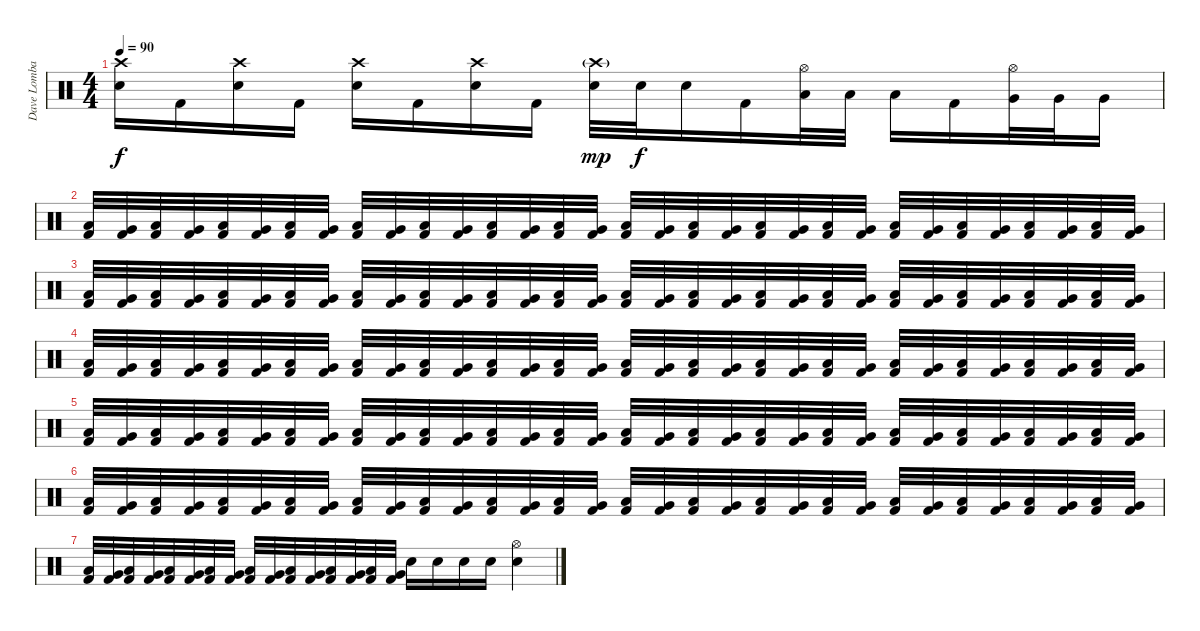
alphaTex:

\track ("Dave Lombardo" "Dave Lomba") {instrument percussion}
\staff {score}
\articulation defaults
\ts (4 4)
\tempo 90
\clef neutral
\ks c
("Crash high (hit)" "Snare (hit) 2").16{dy f} "Kick (hit) 2".16 ("Crash high (hit)" "Snare (hit) 2").16 "Kick (hit) 2".16 ("Crash high (hit)" "Snare (hit) 2").16 "Kick (hit) 2".16 ("Crash high (hit)" "Snare (hit) 2").16 "Kick (hit) 2".16 ("Crash high (hit)"{g} "Snare (hit) 2").32{dy mp} "Snare (hit) 2".32{dy f} "Snare (hit) 2".16 "Kick (hit) 2".16 ("Hi-Hat (open)" "Low Tom (hit)").32 "Low Tom (hit)".32 "Low Tom (hit)".16 "Kick (hit) 2".16 ("Hi-Hat (open)" "Very Low Tom (hit)").32 "Very Low Tom (hit)".32 "Very Low Tom (hit)".16 |
("Low Tom (hit)" "Kick (hit) 2").32 ("Very Low Tom (hit)" "Kick (hit) 2").32 ("Low Tom (hit)" "Kick (hit) 2").32 ("Very Low Tom (hit)" "Kick (hit) 2").32 ("Low Tom (hit)" "Kick (hit) 2").32 ("Very Low Tom (hit)" "Kick (hit) 2").32 ("Low Tom (hit)" "Kick (hit) 2").32 ("Very Low Tom (hit)" "Kick (hit) 2").32 ("Low Tom (hit)" "Kick (hit) 2").32 ("Very Low Tom (hit)" "Kick (hit) 2").32 ("Low Tom (hit)" "Kick (hit) 2").32 ("Very Low Tom (hit)" "Kick (hit) 2").32 ("Low Tom (hit)" "Kick (hit) 2").32 ("Very Low Tom (hit)" "Kick (hit) 2").32 ("Low Tom (hit)" "Kick (hit) 2").32 ("Very Low Tom (hit)" "Kick (hit) 2").32 ("Low Tom (hit)" "Kick (hit) 2").32 ("Very Low Tom (hit)" "Kick (hit) 2").32 ("Low Tom (hit)" "Kick (hit) 2").32 ("Very Low Tom (hit)" "Kick (hit) 2").32 ("Low Tom (hit)" "Kick (hit) 2").32 ("Very Low Tom (hit)" "Kick (hit) 2").32 ("Low Tom (hit)" "Kick (hit) 2").32 ("Very Low Tom (hit)" "Kick (hit) 2").32 ("Low Tom (hit)" "Kick (hit) 2").32 ("Very Low Tom (hit)" "Kick (hit) 2").32 ("Low Tom (hit)" "Kick (hit) 2").32 ("Very Low Tom (hit)" "Kick (hit) 2").32 ("Low Tom (hit)" "Kick (hit) 2").32 ("Very Low Tom (hit)" "Kick (hit) 2").32 ("Low Tom (hit)" "Kick (hit) 2").32 ("Very Low Tom (hit)" "Kick (hit) 2").32 |
("Low Tom (hit)" "Kick (hit) 2").32 ("Very Low Tom (hit)" "Kick (hit) 2").32 ("Low Tom (hit)" "Kick (hit) 2").32 ("Very Low Tom (hit)" "Kick (hit) 2").32 ("Low Tom (hit)" "Kick (hit) 2").32 ("Very Low Tom (hit)" "Kick (hit) 2").32 ("Low Tom (hit)" "Kick (hit) 2").32 ("Very Low Tom (hit)" "Kick (hit) 2").32 ("Low Tom (hit)" "Kick (hit) 2").32 ("Very Low Tom (hit)" "Kick (hit) 2").32 ("Low Tom (hit)" "Kick (hit) 2").32 ("Very Low Tom (hit)" "Kick (hit) 2").32 ("Low Tom (hit)" "Kick (hit) 2").32 ("Very Low Tom (hit)" "Kick (hit) 2").32 ("Low Tom (hit)" "Kick (hit) 2").32 ("Very Low Tom (hit)" "Kick (hit) 2").32 ("Low Tom (hit)" "Kick (hit) 2").32 ("Very Low Tom (hit)" "Kick (hit) 2").32 ("Low Tom (hit)" "Kick (hit) 2").32 ("Very Low Tom (hit)" "Kick (hit) 2").32 ("Low Tom (hit)" "Kick (hit) 2").32 ("Very Low Tom (hit)" "Kick (hit) 2").32 ("Low Tom (hit)" "Kick (hit) 2").32 ("Very Low Tom (hit)" "Kick (hit) 2").32 ("Low Tom (hit)" "Kick (hit) 2").32 ("Very Low Tom (hit)" "Kick (hit) 2").32 ("Low Tom (hit)" "Kick (hit) 2").32 ("Very Low Tom (hit)" "Kick (hit) 2").32 ("Low Tom (hit)" "Kick (hit) 2").32 ("Very Low Tom (hit)" "Kick (hit) 2").32 ("Low Tom (hit)" "Kick (hit) 2").32 ("Very Low Tom (hit)" "Kick (hit) 2").32 |
("Low Tom (hit)" "Kick (hit) 2").32 ("Very Low Tom (hit)" "Kick (hit) 2").32 ("Low Tom (hit)" "Kick (hit) 2").32 ("Very Low Tom (hit)" "Kick (hit) 2").32 ("Low Tom (hit)" "Kick (hit) 2").32 ("Very Low Tom (hit)" "Kick (hit) 2").32 ("Low Tom (hit)" "Kick (hit) 2").32 ("Very Low Tom (hit)" "Kick (hit) 2").32 ("Low Tom (hit)" "Kick (hit) 2").32 ("Very Low Tom (hit)" "Kick (hit) 2").32 ("Low Tom (hit)" "Kick (hit) 2").32 ("Very Low Tom (hit)" "Kick (hit) 2").32 ("Low Tom (hit)" "Kick (hit) 2").32 ("Very Low Tom (hit)" "Kick (hit) 2").32 ("Low Tom (hit)" "Kick (hit) 2").32 ("Very Low Tom (hit)" "Kick (hit) 2").32 ("Low Tom (hit)" "Kick (hit) 2").32 ("Very Low Tom (hit)" "Kick (hit) 2").32 ("Low Tom (hit)" "Kick (hit) 2").32 ("Very Low Tom (hit)" "Kick (hit) 2").32 ("Low Tom (hit)" "Kick (hit) 2").32 ("Very Low Tom (hit)" "Kick (hit) 2").32 ("Low Tom (hit)" "Kick (hit) 2").32 ("Very Low Tom (hit)" "Kick (hit) 2").32 ("Low Tom (hit)" "Kick (hit) 2").32 ("Very Low Tom (hit)" "Kick (hit) 2").32 ("Low Tom (hit)" "Kick (hit) 2").32 ("Very Low Tom (hit)" "Kick (hit) 2").32 ("Low Tom (hit)" "Kick (hit) 2").32 ("Very Low Tom (hit)" "Kick (hit) 2").32 ("Low Tom (hit)" "Kick (hit) 2").32 ("Very Low Tom (hit)" "Kick (hit) 2").32 |
("Low Tom (hit)" "Kick (hit) 2").32 ("Very Low Tom (hit)" "Kick (hit) 2").32 ("Low Tom (hit)" "Kick (hit) 2").32 ("Very Low Tom (hit)" "Kick (hit) 2").32 ("Low Tom (hit)" "Kick (hit) 2").32 ("Very Low Tom (hit)" "Kick (hit) 2").32 ("Low Tom (hit)" "Kick (hit) 2").32 ("Very Low Tom (hit)" "Kick (hit) 2").32 ("Low Tom (hit)" "Kick (hit) 2").32 ("Very Low Tom (hit)" "Kick (hit) 2").32 ("Low Tom (hit)" "Kick (hit) 2").32 ("Very Low Tom (hit)" "Kick (hit) 2").32 ("Low Tom (hit)" "Kick (hit) 2").32 ("Very Low Tom (hit)" "Kick (hit) 2").32 ("Low Tom (hit)" "Kick (hit) 2").32 ("Very Low Tom (hit)" "Kick (hit) 2").32 ("Low Tom (hit)" "Kick (hit) 2").32 ("Very Low Tom (hit)" "Kick (hit) 2").32 ("Low Tom (hit)" "Kick (hit) 2").32 ("Very Low Tom (hit)" "Kick (hit) 2").32 ("Low Tom (hit)" "Kick (hit) 2").32 ("Very Low Tom (hit)" "Kick (hit) 2").32 ("Low Tom (hit)" "Kick (hit) 2").32 ("Very Low Tom (hit)" "Kick (hit) 2").32 ("Low Tom (hit)" "Kick (hit) 2").32 ("Very Low Tom (hit)" "Kick (hit) 2").32 ("Low Tom (hit)" "Kick (hit) 2").32 ("Very Low Tom (hit)" "Kick (hit) 2").32 ("Low Tom (hit)" "Kick (hit) 2").32 ("Very Low Tom (hit)" "Kick (hit) 2").32 ("Low Tom (hit)" "Kick (hit) 2").32 ("Very Low Tom (hit)" "Kick (hit) 2").32 |
("Low Tom (hit)" "Kick (hit) 2").32 ("Very Low Tom (hit)" "Kick (hit) 2").32 ("Low Tom (hit)" "Kick (hit) 2").32 ("Very Low Tom (hit)" "Kick (hit) 2").32 ("Low Tom (hit)" "Kick (hit) 2").32 ("Very Low Tom (hit)" "Kick (hit) 2").32 ("Low Tom (hit)" "Kick (hit) 2").32 ("Very Low Tom (hit)" "Kick (hit) 2").32 ("Low Tom (hit)" "Kick (hit) 2").32 ("Very Low Tom (hit)" "Kick (hit) 2").32 ("Low Tom (hit)" "Kick (hit) 2").32 ("Very Low Tom (hit)" "Kick (hit) 2").32 ("Low Tom (hit)" "Kick (hit) 2").32 ("Very Low Tom (hit)" "Kick (hit) 2").32 ("Low Tom (hit)" "Kick (hit) 2").32 ("Very Low Tom (hit)" "Kick (hit) 2").32 ("Low Tom (hit)" "Kick (hit) 2").32 ("Very Low Tom (hit)" "Kick (hit) 2").32 ("Low Tom (hit)" "Kick (hit) 2").32 ("Very Low Tom (hit)" "Kick (hit) 2").32 ("Low Tom (hit)" "Kick (hit) 2").32 ("Very Low Tom (hit)" "Kick (hit) 2").32 ("Low Tom (hit)" "Kick (hit) 2").32 ("Very Low Tom (hit)" "Kick (hit) 2").32 ("Low Tom (hit)" "Kick (hit) 2").32 ("Very Low Tom (hit)" "Kick (hit) 2").32 ("Low Tom (hit)" "Kick (hit) 2").32 ("Very Low Tom (hit)" "Kick (hit) 2").32 ("Low Tom (hit)" "Kick (hit) 2").32 ("Very Low Tom (hit)" "Kick (hit) 2").32 ("Low Tom (hit)" "Kick (hit) 2").32 ("Very Low Tom (hit)" "Kick (hit) 2").32 |
("Low Tom (hit)" "Kick (hit) 2").32 ("Very Low Tom (hit)" "Kick (hit) 2").32 ("Low Tom (hit)" "Kick (hit) 2").32 ("Very Low Tom (hit)" "Kick (hit) 2").32 ("Low Tom (hit)" "Kick (hit) 2").32 ("Very Low Tom (hit)" "Kick (hit) 2").32 ("Low Tom (hit)" "Kick (hit) 2").32 ("Very Low Tom (hit)" "Kick (hit) 2").32 ("Low Tom (hit)" "Kick (hit) 2").32 ("Very Low Tom (hit)" "Kick (hit) 2").32 ("Low Tom (hit)" "Kick (hit) 2").32 ("Very Low Tom (hit)" "Kick (hit) 2").32 ("Low Tom (hit)" "Kick (hit) 2").32 ("Very Low Tom (hit)" "Kick (hit) 2").32 ("Low Tom (hit)" "Kick (hit) 2").32 ("Very Low Tom (hit)" "Kick (hit) 2").32 "Snare (hit) 2".16 "Snare (hit) 2".16 "Snare (hit) 2".16 "Snare (hit) 2".16 ("Hi-Hat (open)" "Snare (hit) 2").4
